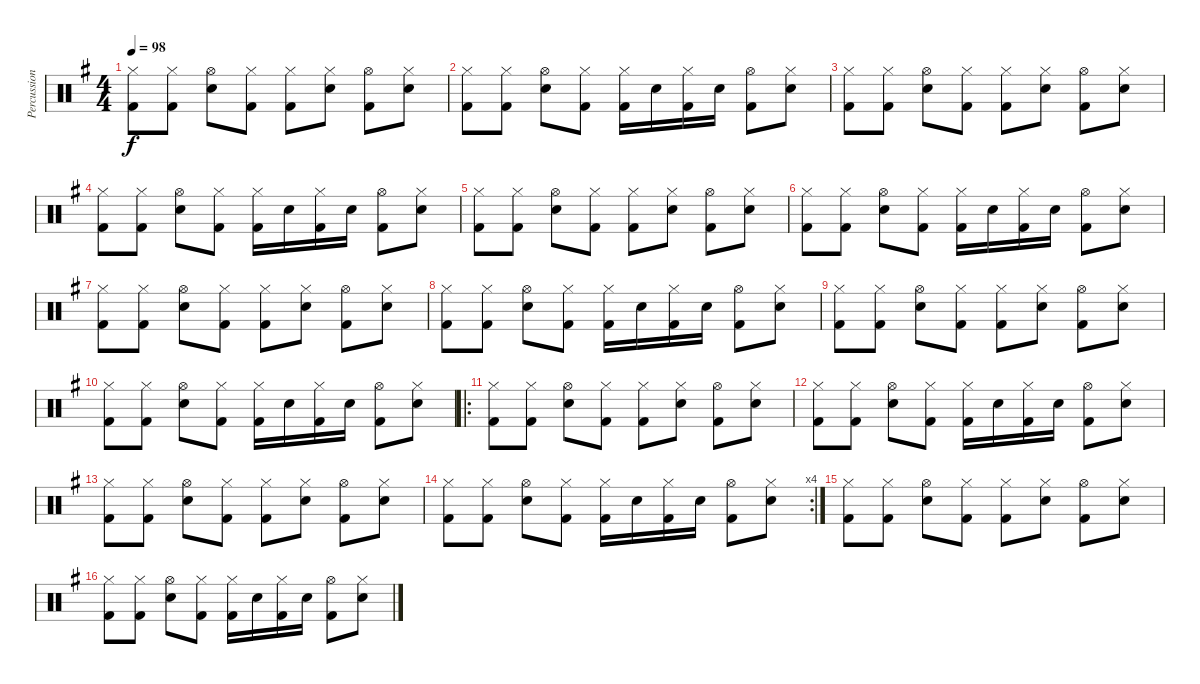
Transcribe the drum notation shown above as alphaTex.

\track ("Percussion" "Percussion") {instrument percussion}
\staff {score}
\articulation defaults
\ts (4 4)
\tempo 98
\clef neutral
\ks eminor
("Hi-Hat (closed)" "Kick (hit) 2").8{dy f} ("Hi-Hat (closed)" "Kick (hit) 2").8 ("Hi-Hat (open)" "Electric Snare (hit)").8 ("Hi-Hat (closed)" "Kick (hit) 2").8 ("Hi-Hat (closed)" "Kick (hit) 2").8 ("Hi-Hat (closed)" "Electric Snare (hit)").8 ("Hi-Hat (open)" "Kick (hit) 2").8 ("Hi-Hat (closed)" "Electric Snare (hit)").8 |
("Hi-Hat (closed)" "Kick (hit) 2").8 ("Hi-Hat (closed)" "Kick (hit) 2").8 ("Hi-Hat (open)" "Electric Snare (hit)").8 ("Hi-Hat (closed)" "Kick (hit) 2").8 ("Hi-Hat (closed)" "Kick (hit) 2").16 "Electric Snare (hit)".16 ("Hi-Hat (closed)" "Kick (hit) 2").16 "Electric Snare (hit)".16 ("Hi-Hat (open)" "Kick (hit) 2").8 ("Hi-Hat (closed)" "Electric Snare (hit)").8 |
("Hi-Hat (closed)" "Kick (hit) 2").8 ("Hi-Hat (closed)" "Kick (hit) 2").8 ("Hi-Hat (open)" "Electric Snare (hit)").8 ("Hi-Hat (closed)" "Kick (hit) 2").8 ("Hi-Hat (closed)" "Kick (hit) 2").8 ("Hi-Hat (closed)" "Electric Snare (hit)").8 ("Hi-Hat (open)" "Kick (hit) 2").8 ("Hi-Hat (closed)" "Electric Snare (hit)").8 |
("Hi-Hat (closed)" "Kick (hit) 2").8 ("Hi-Hat (closed)" "Kick (hit) 2").8 ("Hi-Hat (open)" "Electric Snare (hit)").8 ("Hi-Hat (closed)" "Kick (hit) 2").8 ("Hi-Hat (closed)" "Kick (hit) 2").16 "Electric Snare (hit)".16 ("Hi-Hat (closed)" "Kick (hit) 2").16 "Electric Snare (hit)".16 ("Hi-Hat (open)" "Kick (hit) 2").8 ("Hi-Hat (closed)" "Electric Snare (hit)").8 |
("Hi-Hat (closed)" "Kick (hit) 2").8 ("Hi-Hat (closed)" "Kick (hit) 2").8 ("Hi-Hat (open)" "Electric Snare (hit)").8 ("Hi-Hat (closed)" "Kick (hit) 2").8 ("Hi-Hat (closed)" "Kick (hit) 2").8 ("Hi-Hat (closed)" "Electric Snare (hit)").8 ("Hi-Hat (open)" "Kick (hit) 2").8 ("Hi-Hat (closed)" "Electric Snare (hit)").8 |
("Hi-Hat (closed)" "Kick (hit) 2").8 ("Hi-Hat (closed)" "Kick (hit) 2").8 ("Hi-Hat (open)" "Electric Snare (hit)").8 ("Hi-Hat (closed)" "Kick (hit) 2").8 ("Hi-Hat (closed)" "Kick (hit) 2").16 "Electric Snare (hit)".16 ("Hi-Hat (closed)" "Kick (hit) 2").16 "Electric Snare (hit)".16 ("Hi-Hat (open)" "Kick (hit) 2").8 ("Hi-Hat (closed)" "Electric Snare (hit)").8 |
("Hi-Hat (closed)" "Kick (hit) 2").8 ("Hi-Hat (closed)" "Kick (hit) 2").8 ("Hi-Hat (open)" "Electric Snare (hit)").8 ("Hi-Hat (closed)" "Kick (hit) 2").8 ("Hi-Hat (closed)" "Kick (hit) 2").8 ("Hi-Hat (closed)" "Electric Snare (hit)").8 ("Hi-Hat (open)" "Kick (hit) 2").8 ("Hi-Hat (closed)" "Electric Snare (hit)").8 |
("Hi-Hat (closed)" "Kick (hit) 2").8 ("Hi-Hat (closed)" "Kick (hit) 2").8 ("Hi-Hat (open)" "Electric Snare (hit)").8 ("Hi-Hat (closed)" "Kick (hit) 2").8 ("Hi-Hat (closed)" "Kick (hit) 2").16 "Electric Snare (hit)".16 ("Hi-Hat (closed)" "Kick (hit) 2").16 "Electric Snare (hit)".16 ("Hi-Hat (open)" "Kick (hit) 2").8 ("Hi-Hat (closed)" "Electric Snare (hit)").8 |
("Hi-Hat (closed)" "Kick (hit) 2").8 ("Hi-Hat (closed)" "Kick (hit) 2").8 ("Hi-Hat (open)" "Electric Snare (hit)").8 ("Hi-Hat (closed)" "Kick (hit) 2").8 ("Hi-Hat (closed)" "Kick (hit) 2").8 ("Hi-Hat (closed)" "Electric Snare (hit)").8 ("Hi-Hat (open)" "Kick (hit) 2").8 ("Hi-Hat (closed)" "Electric Snare (hit)").8 |
("Hi-Hat (closed)" "Kick (hit) 2").8 ("Hi-Hat (closed)" "Kick (hit) 2").8 ("Hi-Hat (open)" "Electric Snare (hit)").8 ("Hi-Hat (closed)" "Kick (hit) 2").8 ("Hi-Hat (closed)" "Kick (hit) 2").16 "Electric Snare (hit)".16 ("Hi-Hat (closed)" "Kick (hit) 2").16 "Electric Snare (hit)".16 ("Hi-Hat (open)" "Kick (hit) 2").8 ("Hi-Hat (closed)" "Electric Snare (hit)").8 |
\ro
("Hi-Hat (closed)" "Kick (hit) 2").8 ("Hi-Hat (closed)" "Kick (hit) 2").8 ("Hi-Hat (open)" "Electric Snare (hit)").8 ("Hi-Hat (closed)" "Kick (hit) 2").8 ("Hi-Hat (closed)" "Kick (hit) 2").8 ("Hi-Hat (closed)" "Electric Snare (hit)").8 ("Hi-Hat (open)" "Kick (hit) 2").8 ("Hi-Hat (closed)" "Electric Snare (hit)").8 |
("Hi-Hat (closed)" "Kick (hit) 2").8 ("Hi-Hat (closed)" "Kick (hit) 2").8 ("Hi-Hat (open)" "Electric Snare (hit)").8 ("Hi-Hat (closed)" "Kick (hit) 2").8 ("Hi-Hat (closed)" "Kick (hit) 2").16 "Electric Snare (hit)".16 ("Hi-Hat (closed)" "Kick (hit) 2").16 "Electric Snare (hit)".16 ("Hi-Hat (open)" "Kick (hit) 2").8 ("Hi-Hat (closed)" "Electric Snare (hit)").8 |
("Hi-Hat (closed)" "Kick (hit) 2").8 ("Hi-Hat (closed)" "Kick (hit) 2").8 ("Hi-Hat (open)" "Electric Snare (hit)").8 ("Hi-Hat (closed)" "Kick (hit) 2").8 ("Hi-Hat (closed)" "Kick (hit) 2").8 ("Hi-Hat (closed)" "Electric Snare (hit)").8 ("Hi-Hat (open)" "Kick (hit) 2").8 ("Hi-Hat (closed)" "Electric Snare (hit)").8 |
\rc 4
("Hi-Hat (closed)" "Kick (hit) 2").8 ("Hi-Hat (closed)" "Kick (hit) 2").8 ("Hi-Hat (open)" "Electric Snare (hit)").8 ("Hi-Hat (closed)" "Kick (hit) 2").8 ("Hi-Hat (closed)" "Kick (hit) 2").16 "Electric Snare (hit)".16 ("Hi-Hat (closed)" "Kick (hit) 2").16 "Electric Snare (hit)".16 ("Hi-Hat (open)" "Kick (hit) 2").8 ("Hi-Hat (closed)" "Electric Snare (hit)").8 |
("Hi-Hat (closed)" "Kick (hit) 2").8{volume 0} ("Hi-Hat (closed)" "Kick (hit) 2").8 ("Hi-Hat (open)" "Electric Snare (hit)").8 ("Hi-Hat (closed)" "Kick (hit) 2").8 ("Hi-Hat (closed)" "Kick (hit) 2").8 ("Hi-Hat (closed)" "Electric Snare (hit)").8 ("Hi-Hat (open)" "Kick (hit) 2").8 ("Hi-Hat (closed)" "Electric Snare (hit)").8 |
("Hi-Hat (closed)" "Kick (hit) 2").8 ("Hi-Hat (closed)" "Kick (hit) 2").8 ("Hi-Hat (open)" "Electric Snare (hit)").8 ("Hi-Hat (closed)" "Kick (hit) 2").8 ("Hi-Hat (closed)" "Kick (hit) 2").16 "Electric Snare (hit)".16 ("Hi-Hat (closed)" "Kick (hit) 2").16 "Electric Snare (hit)".16 ("Hi-Hat (open)" "Kick (hit) 2").8 ("Hi-Hat (closed)" "Electric Snare (hit)").8
